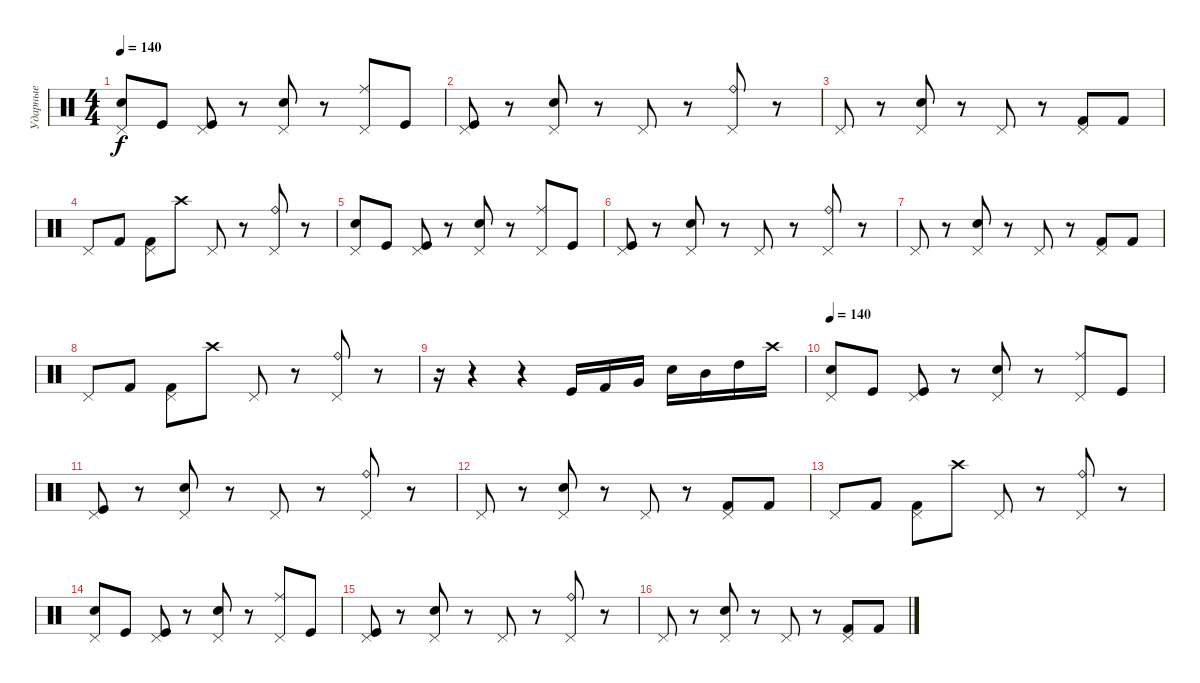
\track ("Ударные" "Ударные") {instrument percussion bank 7}
\staff {score}
\articulation defaults
\ts (4 4)
\tempo 140
\clef neutral
\ks c
("Pedal Hi-Hat (hit)" "Snare (hit) 2").8{dy f} "Kick (hit)".8 ("Pedal Hi-Hat (hit)" "Kick (hit)").8 r.8 ("Pedal Hi-Hat (hit)" "Electric Snare (hit)").8 r.8 ("Pedal Hi-Hat (hit)" "Ride (middle)").8 "Kick (hit)".8 |
("Pedal Hi-Hat (hit)" "Kick (hit)").8 r.8 ("Pedal Hi-Hat (hit)" "Electric Snare (hit)").8 r.8 "Pedal Hi-Hat (hit)".8 r.8 ("Pedal Hi-Hat (hit)" "Ride (bell)").8 r.8 |
"Pedal Hi-Hat (hit)".8 r.8 ("Pedal Hi-Hat (hit)" "Electric Snare (hit)").8 r.8 "Pedal Hi-Hat (hit)".8 r.8 ("Pedal Hi-Hat (hit)" "Kick (hit) 2").8 "Kick (hit) 2".8 |
"Pedal Hi-Hat (hit)".8 "Kick (hit) 2".8 ("Pedal Hi-Hat (hit)" "Kick (hit) 2").8 "Crash high (hit)".8 "Pedal Hi-Hat (hit)".8 r.8 ("Pedal Hi-Hat (hit)" "Ride (bell)").8 r.8 |
("Pedal Hi-Hat (hit)" "Snare (hit) 2").8 "Kick (hit)".8 ("Pedal Hi-Hat (hit)" "Kick (hit)").8 r.8 ("Pedal Hi-Hat (hit)" "Electric Snare (hit)").8 r.8 ("Pedal Hi-Hat (hit)" "Ride (middle)").8 "Kick (hit)".8 |
("Pedal Hi-Hat (hit)" "Kick (hit)").8 r.8 ("Pedal Hi-Hat (hit)" "Electric Snare (hit)").8 r.8 "Pedal Hi-Hat (hit)".8 r.8 ("Pedal Hi-Hat (hit)" "Ride (bell)").8 r.8 |
"Pedal Hi-Hat (hit)".8 r.8 ("Pedal Hi-Hat (hit)" "Electric Snare (hit)").8 r.8 "Pedal Hi-Hat (hit)".8 r.8 ("Pedal Hi-Hat (hit)" "Kick (hit) 2").8 "Kick (hit) 2".8 |
"Pedal Hi-Hat (hit)".8 "Kick (hit) 2".8 ("Pedal Hi-Hat (hit)" "Kick (hit) 2").8 "Crash high (hit)".8 "Pedal Hi-Hat (hit)".8 r.8 ("Pedal Hi-Hat (hit)" "Ride (bell)").8 r.8 |
r.16 r.4 r.4 "Kick (hit)".16 "Kick (hit) 2".16 "Very Low Tom (hit)".16 "Electric Snare (hit)".16 "Mid Tom (hit)".16 "High Tom (hit)".16 "Crash high (hit)".16 |
\tempo 140
("Pedal Hi-Hat (hit)" "Snare (hit) 2").8 "Kick (hit)".8 ("Pedal Hi-Hat (hit)" "Kick (hit)").8 r.8 ("Pedal Hi-Hat (hit)" "Electric Snare (hit)").8 r.8 ("Pedal Hi-Hat (hit)" "Ride (middle)").8 "Kick (hit)".8 |
("Pedal Hi-Hat (hit)" "Kick (hit)").8 r.8 ("Pedal Hi-Hat (hit)" "Electric Snare (hit)").8 r.8 "Pedal Hi-Hat (hit)".8 r.8 ("Pedal Hi-Hat (hit)" "Ride (bell)").8 r.8 |
"Pedal Hi-Hat (hit)".8 r.8 ("Pedal Hi-Hat (hit)" "Electric Snare (hit)").8 r.8 "Pedal Hi-Hat (hit)".8 r.8 ("Pedal Hi-Hat (hit)" "Kick (hit) 2").8 "Kick (hit) 2".8 |
"Pedal Hi-Hat (hit)".8 "Kick (hit) 2".8 ("Pedal Hi-Hat (hit)" "Kick (hit) 2").8 "Crash high (hit)".8 "Pedal Hi-Hat (hit)".8 r.8 ("Pedal Hi-Hat (hit)" "Ride (bell)").8 r.8 |
("Pedal Hi-Hat (hit)" "Snare (hit) 2").8 "Kick (hit)".8 ("Pedal Hi-Hat (hit)" "Kick (hit)").8 r.8 ("Pedal Hi-Hat (hit)" "Electric Snare (hit)").8 r.8 ("Pedal Hi-Hat (hit)" "Ride (middle)").8 "Kick (hit)".8 |
("Pedal Hi-Hat (hit)" "Kick (hit)").8 r.8 ("Pedal Hi-Hat (hit)" "Electric Snare (hit)").8 r.8 "Pedal Hi-Hat (hit)".8 r.8 ("Pedal Hi-Hat (hit)" "Ride (bell)").8 r.8 |
"Pedal Hi-Hat (hit)".8 r.8 ("Pedal Hi-Hat (hit)" "Electric Snare (hit)").8 r.8 "Pedal Hi-Hat (hit)".8 r.8 ("Pedal Hi-Hat (hit)" "Kick (hit) 2").8 "Kick (hit) 2".8
